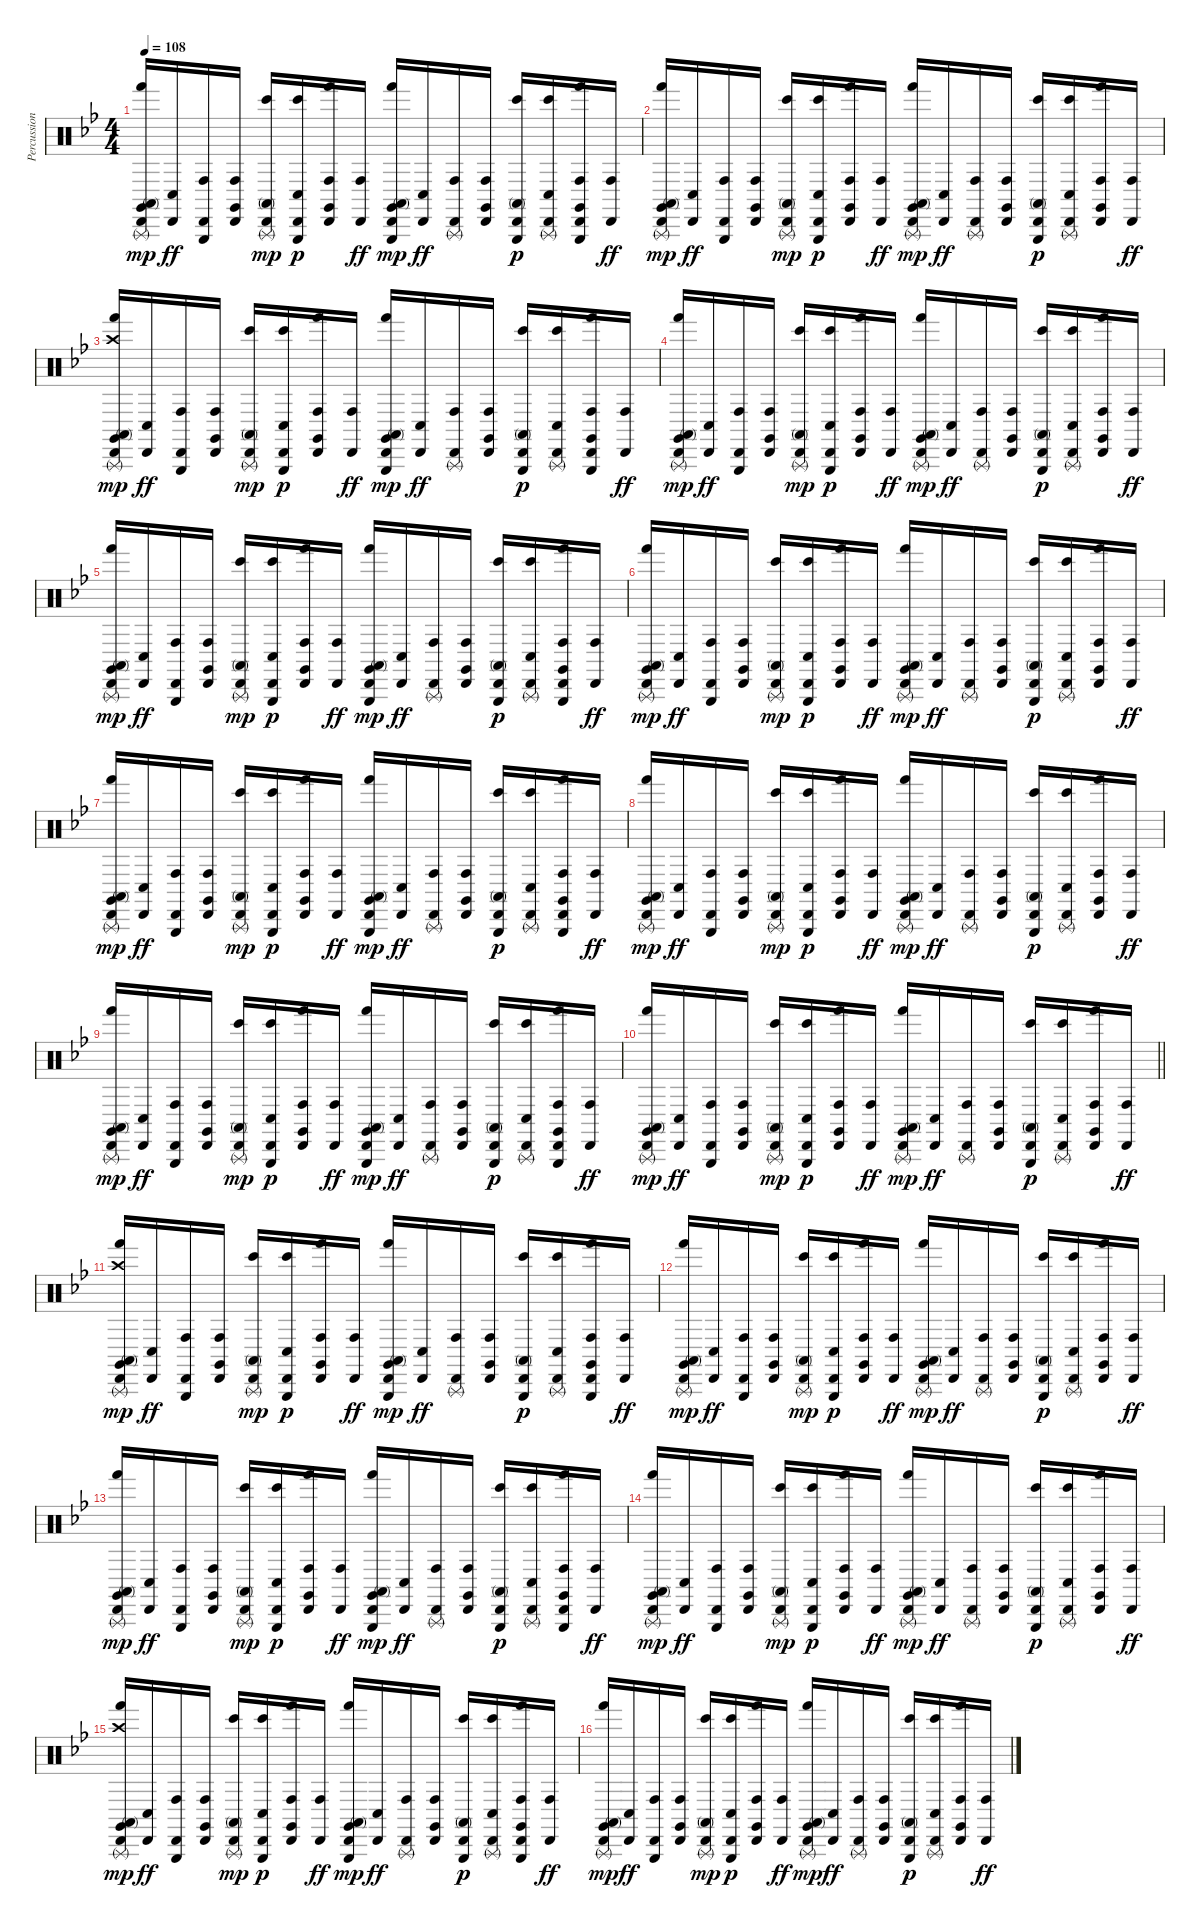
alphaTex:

\track ("Percussion" "Percussion") {instrument percussion}
\staff {score}
\articulation defaults
\ts (4 4)
\tempo 108
\clef neutral
\ks gminor
("Cabasa (hit)" "Claves (hit)" "Triangle (rnute)" "Conga high (mute)" "Hand (hit)").16{dy mp} ("Cabasa (hit)" "Conga low (hit)").16{dy ff} ("Cabasa (hit)" "Triangle (hit)" "Conga high (hit)").16 ("Cabasa (hit)" "Claves (hit)" "Conga high (hit)").16 ("Cabasa (hit)" "Triangle (rnute)" "Conga high (mute)" "Bongo High (hit)").16{dy mp} ("Cabasa (hit)" "Triangle (hit)" "Conga low (hit)" "Bongo High (hit)").16{dy p} ("Cabasa (hit)" "Claves (hit)" "Conga high (hit)" "Hand (hit)").16 ("Cabasa (hit)" "Conga high (hit)").16{dy ff} ("Cabasa (hit)" "Claves (hit)" "Triangle (hit)" "Conga high (mute)" "Hand (hit)").16{dy mp} ("Cabasa (hit)" "Conga low (hit)").16{dy ff} ("Cabasa (hit)" "Triangle (rnute)" "Conga high (hit)").16 ("Cabasa (hit)" "Claves (hit)" "Conga high (hit)").16 ("Cabasa (hit)" "Triangle (hit)" "Conga high (mute)" "Bongo High (hit)").16{dy p} ("Cabasa (hit)" "Triangle (rnute)" "Conga low (hit)" "Bongo High (hit)").16 ("Cabasa (hit)" "Claves (hit)" "Triangle (hit)" "Conga high (hit)" "Hand (hit)").16 ("Cabasa (hit)" "Conga high (hit)").16{dy ff} |
("Cabasa (hit)" "Triangle (rnute)" "Claves (hit)" "Conga high (mute)" "Hand (hit)").16{dy mp} ("Cabasa (hit)" "Conga low (hit)").16{dy ff} ("Cabasa (hit)" "Triangle (hit)" "Conga high (hit)").16 ("Cabasa (hit)" "Claves (hit)" "Conga high (hit)").16 ("Cabasa (hit)" "Triangle (rnute)" "Conga high (mute)" "Bongo High (hit)").16{dy mp} ("Cabasa (hit)" "Triangle (hit)" "Conga low (hit)" "Bongo High (hit)").16{dy p} ("Cabasa (hit)" "Claves (hit)" "Conga high (hit)" "Hand (hit)").16 ("Cabasa (hit)" "Conga high (hit)").16{dy ff} ("Cabasa (hit)" "Triangle (rnute)" "Claves (hit)" "Conga high (mute)" "Hand (hit)").16{dy mp} ("Cabasa (hit)" "Conga low (hit)").16{dy ff} ("Cabasa (hit)" "Triangle (rnute)" "Conga high (hit)").16 ("Cabasa (hit)" "Claves (hit)" "Conga high (hit)").16 ("Cabasa (hit)" "Triangle (hit)" "Conga high (mute)" "Bongo High (hit)").16{dy p} ("Cabasa (hit)" "Triangle (rnute)" "Conga low (hit)" "Bongo High (hit)").16 ("Cabasa (hit)" "Claves (hit)" "Conga high (hit)" "Hand (hit)").16 ("Cabasa (hit)" "Conga high (hit)").16{dy ff} |
("Crash high (hit)" "Cabasa (hit)" "Claves (hit)" "Triangle (rnute)" "Conga high (mute)" "Hand (hit)").16{dy mp} ("Cabasa (hit)" "Conga low (hit)").16{dy ff} ("Cabasa (hit)" "Triangle (hit)" "Conga high (hit)").16 ("Cabasa (hit)" "Claves (hit)" "Conga high (hit)").16 ("Cabasa (hit)" "Triangle (rnute)" "Conga high (mute)" "Bongo High (hit)").16{dy mp} ("Cabasa (hit)" "Triangle (hit)" "Conga low (hit)" "Bongo High (hit)").16{dy p} ("Cabasa (hit)" "Claves (hit)" "Conga high (hit)" "Hand (hit)").16 ("Cabasa (hit)" "Conga high (hit)").16{dy ff} ("Cabasa (hit)" "Claves (hit)" "Triangle (hit)" "Conga high (mute)" "Hand (hit)").16{dy mp} ("Cabasa (hit)" "Conga low (hit)").16{dy ff} ("Cabasa (hit)" "Triangle (rnute)" "Conga high (hit)").16 ("Cabasa (hit)" "Claves (hit)" "Conga high (hit)").16 ("Cabasa (hit)" "Triangle (hit)" "Conga high (mute)" "Bongo High (hit)").16{dy p} ("Cabasa (hit)" "Triangle (rnute)" "Conga low (hit)" "Bongo High (hit)").16 ("Cabasa (hit)" "Claves (hit)" "Triangle (hit)" "Conga high (hit)" "Hand (hit)").16 ("Cabasa (hit)" "Conga high (hit)").16{dy ff} |
("Cabasa (hit)" "Triangle (rnute)" "Claves (hit)" "Conga high (mute)" "Hand (hit)").16{dy mp} ("Cabasa (hit)" "Conga low (hit)").16{dy ff} ("Cabasa (hit)" "Triangle (hit)" "Conga high (hit)").16 ("Cabasa (hit)" "Claves (hit)" "Conga high (hit)").16 ("Cabasa (hit)" "Triangle (rnute)" "Conga high (mute)" "Bongo High (hit)").16{dy mp} ("Cabasa (hit)" "Triangle (hit)" "Conga low (hit)" "Bongo High (hit)").16{dy p} ("Cabasa (hit)" "Claves (hit)" "Conga high (hit)" "Hand (hit)").16 ("Cabasa (hit)" "Conga high (hit)").16{dy ff} ("Cabasa (hit)" "Triangle (rnute)" "Claves (hit)" "Conga high (mute)" "Hand (hit)").16{dy mp} ("Cabasa (hit)" "Conga low (hit)").16{dy ff} ("Cabasa (hit)" "Triangle (rnute)" "Conga high (hit)").16 ("Cabasa (hit)" "Claves (hit)" "Conga high (hit)").16 ("Cabasa (hit)" "Triangle (hit)" "Conga high (mute)" "Bongo High (hit)").16{dy p} ("Cabasa (hit)" "Triangle (rnute)" "Conga low (hit)" "Bongo High (hit)").16 ("Cabasa (hit)" "Claves (hit)" "Conga high (hit)" "Hand (hit)").16 ("Cabasa (hit)" "Conga high (hit)").16{dy ff} |
("Cabasa (hit)" "Claves (hit)" "Triangle (rnute)" "Conga high (mute)" "Hand (hit)").16{dy mp} ("Cabasa (hit)" "Conga low (hit)").16{dy ff} ("Cabasa (hit)" "Triangle (hit)" "Conga high (hit)").16 ("Cabasa (hit)" "Claves (hit)" "Conga high (hit)").16 ("Cabasa (hit)" "Triangle (rnute)" "Conga high (mute)" "Bongo High (hit)").16{dy mp} ("Cabasa (hit)" "Triangle (hit)" "Conga low (hit)" "Bongo High (hit)").16{dy p} ("Cabasa (hit)" "Claves (hit)" "Conga high (hit)" "Hand (hit)").16 ("Cabasa (hit)" "Conga high (hit)").16{dy ff} ("Cabasa (hit)" "Claves (hit)" "Triangle (hit)" "Conga high (mute)" "Hand (hit)").16{dy mp} ("Cabasa (hit)" "Conga low (hit)").16{dy ff} ("Cabasa (hit)" "Triangle (rnute)" "Conga high (hit)").16 ("Cabasa (hit)" "Claves (hit)" "Conga high (hit)").16 ("Cabasa (hit)" "Triangle (hit)" "Conga high (mute)" "Bongo High (hit)").16{dy p} ("Cabasa (hit)" "Triangle (rnute)" "Conga low (hit)" "Bongo High (hit)").16 ("Cabasa (hit)" "Claves (hit)" "Triangle (hit)" "Conga high (hit)" "Hand (hit)").16 ("Cabasa (hit)" "Conga high (hit)").16{dy ff} |
("Cabasa (hit)" "Triangle (rnute)" "Claves (hit)" "Conga high (mute)" "Hand (hit)").16{dy mp} ("Cabasa (hit)" "Conga low (hit)").16{dy ff} ("Cabasa (hit)" "Triangle (hit)" "Conga high (hit)").16 ("Cabasa (hit)" "Claves (hit)" "Conga high (hit)").16 ("Cabasa (hit)" "Triangle (rnute)" "Conga high (mute)" "Bongo High (hit)").16{dy mp} ("Cabasa (hit)" "Triangle (hit)" "Conga low (hit)" "Bongo High (hit)").16{dy p} ("Cabasa (hit)" "Claves (hit)" "Conga high (hit)" "Hand (hit)").16 ("Cabasa (hit)" "Conga high (hit)").16{dy ff} ("Cabasa (hit)" "Triangle (rnute)" "Claves (hit)" "Conga high (mute)" "Hand (hit)").16{dy mp} ("Cabasa (hit)" "Conga low (hit)").16{dy ff} ("Cabasa (hit)" "Triangle (rnute)" "Conga high (hit)").16 ("Cabasa (hit)" "Claves (hit)" "Conga high (hit)").16 ("Cabasa (hit)" "Triangle (hit)" "Conga high (mute)" "Bongo High (hit)").16{dy p} ("Cabasa (hit)" "Triangle (rnute)" "Conga low (hit)" "Bongo High (hit)").16 ("Cabasa (hit)" "Claves (hit)" "Conga high (hit)" "Hand (hit)").16 ("Cabasa (hit)" "Conga high (hit)").16{dy ff} |
("Cabasa (hit)" "Claves (hit)" "Triangle (rnute)" "Conga high (mute)" "Hand (hit)").16{dy mp} ("Cabasa (hit)" "Conga low (hit)").16{dy ff} ("Cabasa (hit)" "Triangle (hit)" "Conga high (hit)").16 ("Cabasa (hit)" "Claves (hit)" "Conga high (hit)").16 ("Cabasa (hit)" "Triangle (rnute)" "Conga high (mute)" "Bongo High (hit)").16{dy mp} ("Cabasa (hit)" "Triangle (hit)" "Conga low (hit)" "Bongo High (hit)").16{dy p} ("Cabasa (hit)" "Claves (hit)" "Conga high (hit)" "Hand (hit)").16 ("Cabasa (hit)" "Conga high (hit)").16{dy ff} ("Cabasa (hit)" "Claves (hit)" "Triangle (hit)" "Conga high (mute)" "Hand (hit)").16{dy mp} ("Cabasa (hit)" "Conga low (hit)").16{dy ff} ("Cabasa (hit)" "Triangle (rnute)" "Conga high (hit)").16 ("Cabasa (hit)" "Claves (hit)" "Conga high (hit)").16 ("Cabasa (hit)" "Triangle (hit)" "Conga high (mute)" "Bongo High (hit)").16{dy p} ("Cabasa (hit)" "Triangle (rnute)" "Conga low (hit)" "Bongo High (hit)").16 ("Cabasa (hit)" "Claves (hit)" "Triangle (hit)" "Conga high (hit)" "Hand (hit)").16 ("Cabasa (hit)" "Conga high (hit)").16{dy ff} |
("Cabasa (hit)" "Triangle (rnute)" "Claves (hit)" "Conga high (mute)" "Hand (hit)").16{dy mp} ("Cabasa (hit)" "Conga low (hit)").16{dy ff} ("Cabasa (hit)" "Triangle (hit)" "Conga high (hit)").16 ("Cabasa (hit)" "Claves (hit)" "Conga high (hit)").16 ("Cabasa (hit)" "Triangle (rnute)" "Conga high (mute)" "Bongo High (hit)").16{dy mp} ("Cabasa (hit)" "Triangle (hit)" "Conga low (hit)" "Bongo High (hit)").16{dy p} ("Cabasa (hit)" "Claves (hit)" "Conga high (hit)" "Hand (hit)").16 ("Cabasa (hit)" "Conga high (hit)").16{dy ff} ("Cabasa (hit)" "Triangle (rnute)" "Claves (hit)" "Conga high (mute)" "Hand (hit)").16{dy mp} ("Cabasa (hit)" "Conga low (hit)").16{dy ff} ("Cabasa (hit)" "Triangle (rnute)" "Conga high (hit)").16 ("Cabasa (hit)" "Claves (hit)" "Conga high (hit)").16 ("Cabasa (hit)" "Triangle (hit)" "Conga high (mute)" "Bongo High (hit)").16{dy p} ("Cabasa (hit)" "Triangle (rnute)" "Conga low (hit)" "Bongo High (hit)").16 ("Cabasa (hit)" "Claves (hit)" "Conga high (hit)" "Hand (hit)").16 ("Cabasa (hit)" "Conga high (hit)").16{dy ff} |
("Cabasa (hit)" "Claves (hit)" "Triangle (rnute)" "Conga high (mute)" "Hand (hit)").16{dy mp} ("Cabasa (hit)" "Conga low (hit)").16{dy ff} ("Cabasa (hit)" "Triangle (hit)" "Conga high (hit)").16 ("Cabasa (hit)" "Claves (hit)" "Conga high (hit)").16 ("Cabasa (hit)" "Triangle (rnute)" "Conga high (mute)" "Bongo High (hit)").16{dy mp} ("Cabasa (hit)" "Triangle (hit)" "Conga low (hit)" "Bongo High (hit)").16{dy p} ("Cabasa (hit)" "Claves (hit)" "Conga high (hit)" "Hand (hit)").16 ("Cabasa (hit)" "Conga high (hit)").16{dy ff} ("Cabasa (hit)" "Claves (hit)" "Triangle (hit)" "Conga high (mute)" "Hand (hit)").16{dy mp} ("Cabasa (hit)" "Conga low (hit)").16{dy ff} ("Cabasa (hit)" "Triangle (rnute)" "Conga high (hit)").16 ("Cabasa (hit)" "Claves (hit)" "Conga high (hit)").16 ("Cabasa (hit)" "Triangle (hit)" "Conga high (mute)" "Bongo High (hit)").16{dy p} ("Cabasa (hit)" "Triangle (rnute)" "Conga low (hit)" "Bongo High (hit)").16 ("Cabasa (hit)" "Claves (hit)" "Triangle (hit)" "Conga high (hit)" "Hand (hit)").16 ("Cabasa (hit)" "Conga high (hit)").16{dy ff} |
\barLineRight lightlight
("Cabasa (hit)" "Triangle (rnute)" "Claves (hit)" "Conga high (mute)" "Hand (hit)").16{dy mp} ("Cabasa (hit)" "Conga low (hit)").16{dy ff} ("Cabasa (hit)" "Triangle (hit)" "Conga high (hit)").16 ("Cabasa (hit)" "Claves (hit)" "Conga high (hit)").16 ("Cabasa (hit)" "Triangle (rnute)" "Conga high (mute)" "Bongo High (hit)").16{dy mp} ("Cabasa (hit)" "Triangle (hit)" "Conga low (hit)" "Bongo High (hit)").16{dy p} ("Cabasa (hit)" "Claves (hit)" "Conga high (hit)" "Hand (hit)").16 ("Cabasa (hit)" "Conga high (hit)").16{dy ff} ("Cabasa (hit)" "Triangle (rnute)" "Claves (hit)" "Conga high (mute)" "Hand (hit)").16{dy mp} ("Cabasa (hit)" "Conga low (hit)").16{dy ff} ("Cabasa (hit)" "Triangle (rnute)" "Conga high (hit)").16 ("Cabasa (hit)" "Claves (hit)" "Conga high (hit)").16 ("Cabasa (hit)" "Triangle (hit)" "Conga high (mute)" "Bongo High (hit)").16{dy p} ("Cabasa (hit)" "Triangle (rnute)" "Conga low (hit)" "Bongo High (hit)").16 ("Cabasa (hit)" "Claves (hit)" "Conga high (hit)" "Hand (hit)").16 ("Cabasa (hit)" "Conga high (hit)").16{dy ff} |
\section ("" "")
("Crash high (hit)" "Cabasa (hit)" "Claves (hit)" "Triangle (rnute)" "Conga high (mute)" "Hand (hit)").16{dy mp} ("Cabasa (hit)" "Conga low (hit)").16{dy ff} ("Cabasa (hit)" "Triangle (hit)" "Conga high (hit)").16 ("Cabasa (hit)" "Claves (hit)" "Conga high (hit)").16 ("Cabasa (hit)" "Triangle (rnute)" "Conga high (mute)" "Bongo High (hit)").16{dy mp} ("Cabasa (hit)" "Triangle (hit)" "Conga low (hit)" "Bongo High (hit)").16{dy p} ("Cabasa (hit)" "Claves (hit)" "Conga high (hit)" "Hand (hit)").16 ("Cabasa (hit)" "Conga high (hit)").16{dy ff} ("Cabasa (hit)" "Claves (hit)" "Triangle (hit)" "Conga high (mute)" "Hand (hit)").16{dy mp} ("Cabasa (hit)" "Conga low (hit)").16{dy ff} ("Cabasa (hit)" "Triangle (rnute)" "Conga high (hit)").16 ("Cabasa (hit)" "Claves (hit)" "Conga high (hit)").16 ("Cabasa (hit)" "Triangle (hit)" "Conga high (mute)" "Bongo High (hit)").16{dy p} ("Cabasa (hit)" "Triangle (rnute)" "Conga low (hit)" "Bongo High (hit)").16 ("Cabasa (hit)" "Claves (hit)" "Triangle (hit)" "Conga high (hit)" "Hand (hit)").16 ("Cabasa (hit)" "Conga high (hit)").16{dy ff} |
("Cabasa (hit)" "Triangle (rnute)" "Claves (hit)" "Conga high (mute)" "Hand (hit)").16{dy mp} ("Cabasa (hit)" "Conga low (hit)").16{dy ff} ("Cabasa (hit)" "Triangle (hit)" "Conga high (hit)").16 ("Cabasa (hit)" "Claves (hit)" "Conga high (hit)").16 ("Cabasa (hit)" "Triangle (rnute)" "Conga high (mute)" "Bongo High (hit)").16{dy mp} ("Cabasa (hit)" "Triangle (hit)" "Conga low (hit)" "Bongo High (hit)").16{dy p} ("Cabasa (hit)" "Claves (hit)" "Conga high (hit)" "Hand (hit)").16 ("Cabasa (hit)" "Conga high (hit)").16{dy ff} ("Cabasa (hit)" "Triangle (rnute)" "Claves (hit)" "Conga high (mute)" "Hand (hit)").16{dy mp} ("Cabasa (hit)" "Conga low (hit)").16{dy ff} ("Cabasa (hit)" "Triangle (rnute)" "Conga high (hit)").16 ("Cabasa (hit)" "Claves (hit)" "Conga high (hit)").16 ("Cabasa (hit)" "Triangle (hit)" "Conga high (mute)" "Bongo High (hit)").16{dy p} ("Cabasa (hit)" "Triangle (rnute)" "Conga low (hit)" "Bongo High (hit)").16 ("Cabasa (hit)" "Claves (hit)" "Conga high (hit)" "Hand (hit)").16 ("Cabasa (hit)" "Conga high (hit)").16{dy ff} |
("Cabasa (hit)" "Claves (hit)" "Triangle (rnute)" "Conga high (mute)" "Hand (hit)").16{dy mp} ("Cabasa (hit)" "Conga low (hit)").16{dy ff} ("Cabasa (hit)" "Triangle (hit)" "Conga high (hit)").16 ("Cabasa (hit)" "Claves (hit)" "Conga high (hit)").16 ("Cabasa (hit)" "Triangle (rnute)" "Conga high (mute)" "Bongo High (hit)").16{dy mp} ("Cabasa (hit)" "Triangle (hit)" "Conga low (hit)" "Bongo High (hit)").16{dy p} ("Cabasa (hit)" "Claves (hit)" "Conga high (hit)" "Hand (hit)").16 ("Cabasa (hit)" "Conga high (hit)").16{dy ff} ("Cabasa (hit)" "Claves (hit)" "Triangle (hit)" "Conga high (mute)" "Hand (hit)").16{dy mp} ("Cabasa (hit)" "Conga low (hit)").16{dy ff} ("Cabasa (hit)" "Triangle (rnute)" "Conga high (hit)").16 ("Cabasa (hit)" "Claves (hit)" "Conga high (hit)").16 ("Cabasa (hit)" "Triangle (hit)" "Conga high (mute)" "Bongo High (hit)").16{dy p} ("Cabasa (hit)" "Triangle (rnute)" "Conga low (hit)" "Bongo High (hit)").16 ("Cabasa (hit)" "Claves (hit)" "Triangle (hit)" "Conga high (hit)" "Hand (hit)").16 ("Cabasa (hit)" "Conga high (hit)").16{dy ff} |
("Cabasa (hit)" "Triangle (rnute)" "Claves (hit)" "Conga high (mute)" "Hand (hit)").16{dy mp} ("Cabasa (hit)" "Conga low (hit)").16{dy ff} ("Cabasa (hit)" "Triangle (hit)" "Conga high (hit)").16 ("Cabasa (hit)" "Claves (hit)" "Conga high (hit)").16 ("Cabasa (hit)" "Triangle (rnute)" "Conga high (mute)" "Bongo High (hit)").16{dy mp} ("Cabasa (hit)" "Triangle (hit)" "Conga low (hit)" "Bongo High (hit)").16{dy p} ("Cabasa (hit)" "Claves (hit)" "Conga high (hit)" "Hand (hit)").16 ("Cabasa (hit)" "Conga high (hit)").16{dy ff} ("Cabasa (hit)" "Triangle (rnute)" "Claves (hit)" "Conga high (mute)" "Hand (hit)").16{dy mp} ("Cabasa (hit)" "Conga low (hit)").16{dy ff} ("Cabasa (hit)" "Triangle (rnute)" "Conga high (hit)").16 ("Cabasa (hit)" "Claves (hit)" "Conga high (hit)").16 ("Cabasa (hit)" "Triangle (hit)" "Conga high (mute)" "Bongo High (hit)").16{dy p} ("Cabasa (hit)" "Triangle (rnute)" "Conga low (hit)" "Bongo High (hit)").16 ("Cabasa (hit)" "Claves (hit)" "Conga high (hit)" "Hand (hit)").16 ("Cabasa (hit)" "Conga high (hit)").16{dy ff} |
("Crash high (hit)" "Cabasa (hit)" "Claves (hit)" "Triangle (rnute)" "Conga high (mute)" "Hand (hit)").16{dy mp} ("Cabasa (hit)" "Conga low (hit)").16{dy ff} ("Cabasa (hit)" "Triangle (hit)" "Conga high (hit)").16 ("Cabasa (hit)" "Claves (hit)" "Conga high (hit)").16 ("Cabasa (hit)" "Triangle (rnute)" "Conga high (mute)" "Bongo High (hit)").16{dy mp} ("Cabasa (hit)" "Triangle (hit)" "Conga low (hit)" "Bongo High (hit)").16{dy p} ("Cabasa (hit)" "Claves (hit)" "Conga high (hit)" "Hand (hit)").16 ("Cabasa (hit)" "Conga high (hit)").16{dy ff} ("Cabasa (hit)" "Claves (hit)" "Triangle (hit)" "Conga high (mute)" "Hand (hit)").16{dy mp} ("Cabasa (hit)" "Conga low (hit)").16{dy ff} ("Cabasa (hit)" "Triangle (rnute)" "Conga high (hit)").16 ("Cabasa (hit)" "Claves (hit)" "Conga high (hit)").16 ("Cabasa (hit)" "Triangle (hit)" "Conga high (mute)" "Bongo High (hit)").16{dy p} ("Cabasa (hit)" "Triangle (rnute)" "Conga low (hit)" "Bongo High (hit)").16 ("Cabasa (hit)" "Claves (hit)" "Triangle (hit)" "Conga high (hit)" "Hand (hit)").16 ("Cabasa (hit)" "Conga high (hit)").16{dy ff} |
("Cabasa (hit)" "Triangle (rnute)" "Claves (hit)" "Conga high (mute)" "Hand (hit)").16{dy mp} ("Cabasa (hit)" "Conga low (hit)").16{dy ff} ("Cabasa (hit)" "Triangle (hit)" "Conga high (hit)").16 ("Cabasa (hit)" "Claves (hit)" "Conga high (hit)").16 ("Cabasa (hit)" "Triangle (rnute)" "Conga high (mute)" "Bongo High (hit)").16{dy mp} ("Cabasa (hit)" "Triangle (hit)" "Conga low (hit)" "Bongo High (hit)").16{dy p} ("Cabasa (hit)" "Claves (hit)" "Conga high (hit)" "Hand (hit)").16 ("Cabasa (hit)" "Conga high (hit)").16{dy ff} ("Cabasa (hit)" "Triangle (rnute)" "Claves (hit)" "Conga high (mute)" "Hand (hit)").16{dy mp} ("Cabasa (hit)" "Conga low (hit)").16{dy ff} ("Cabasa (hit)" "Triangle (rnute)" "Conga high (hit)").16 ("Cabasa (hit)" "Claves (hit)" "Conga high (hit)").16 ("Cabasa (hit)" "Triangle (hit)" "Conga high (mute)" "Bongo High (hit)").16{dy p} ("Cabasa (hit)" "Triangle (rnute)" "Conga low (hit)" "Bongo High (hit)").16 ("Cabasa (hit)" "Claves (hit)" "Conga high (hit)" "Hand (hit)").16 ("Cabasa (hit)" "Conga high (hit)").16{dy ff}
